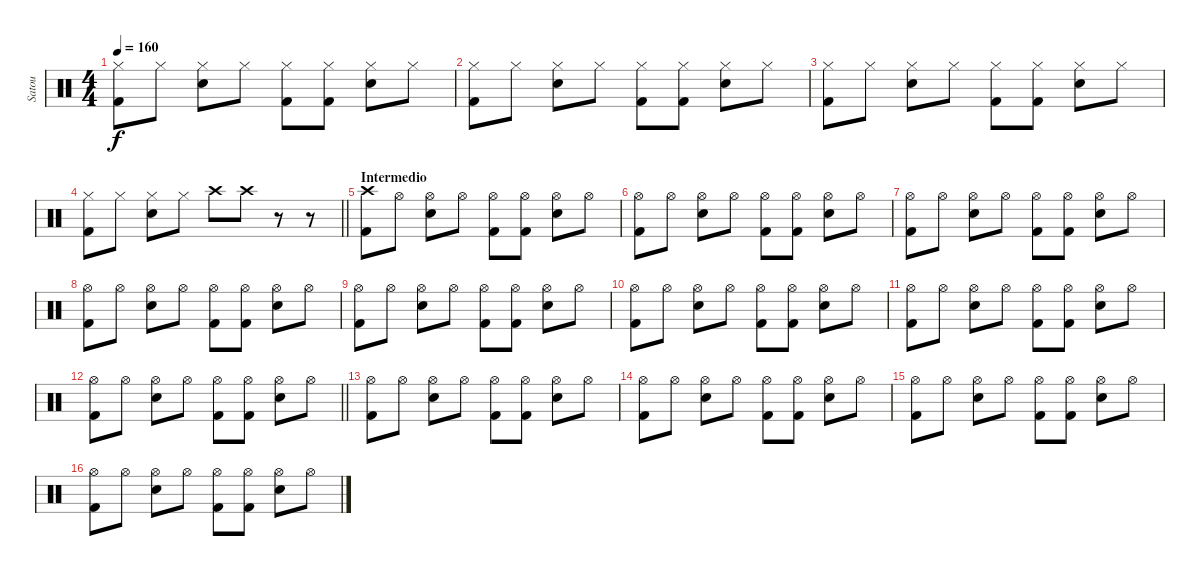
\track ("Satou" "Satou") {instrument percussion}
\staff {score}
\articulation defaults
\ts (4 4)
\tempo 160
\clef neutral
\ks c
("Hi-Hat (closed)" "Kick (hit) 2").8{dy f} "Hi-Hat (closed)".8 ("Hi-Hat (closed)" "Snare (hit) 2").8 "Hi-Hat (closed)".8 ("Hi-Hat (closed)" "Kick (hit) 2").8 ("Hi-Hat (closed)" "Kick (hit) 2").8 ("Hi-Hat (closed)" "Snare (hit) 2").8 "Hi-Hat (closed)".8 |
("Hi-Hat (closed)" "Kick (hit) 2").8 "Hi-Hat (closed)".8 ("Hi-Hat (closed)" "Snare (hit) 2").8 "Hi-Hat (closed)".8 ("Hi-Hat (closed)" "Kick (hit) 2").8 ("Hi-Hat (closed)" "Kick (hit) 2").8 ("Hi-Hat (closed)" "Snare (hit) 2").8 "Hi-Hat (closed)".8 |
("Hi-Hat (closed)" "Kick (hit) 2").8 "Hi-Hat (closed)".8 ("Hi-Hat (closed)" "Snare (hit) 2").8 "Hi-Hat (closed)".8 ("Hi-Hat (closed)" "Kick (hit) 2").8 ("Hi-Hat (closed)" "Kick (hit) 2").8 ("Hi-Hat (closed)" "Snare (hit) 2").8 "Hi-Hat (closed)".8 |
\barLineRight lightlight
("Hi-Hat (closed)" "Kick (hit) 2").8 "Hi-Hat (closed)".8 ("Hi-Hat (closed)" "Snare (hit) 2").8 "Hi-Hat (closed)".8 "Crash high (hit)".8 "Crash high (hit)".8 r.8 r.8 |
\section ("" "Intermedio")
("Crash high (hit)" "Kick (hit) 2").8 "Hi-Hat (open)".8 ("Hi-Hat (open)" "Snare (hit) 2").8 "Hi-Hat (open)".8 ("Hi-Hat (open)" "Kick (hit) 2").8 ("Hi-Hat (open)" "Kick (hit) 2").8 ("Hi-Hat (open)" "Snare (hit) 2").8 "Hi-Hat (open)".8 |
("Hi-Hat (open)" "Kick (hit) 2").8 "Hi-Hat (open)".8 ("Hi-Hat (open)" "Snare (hit) 2").8 "Hi-Hat (open)".8 ("Hi-Hat (open)" "Kick (hit) 2").8 ("Hi-Hat (open)" "Kick (hit) 2").8 ("Hi-Hat (open)" "Snare (hit) 2").8 "Hi-Hat (open)".8 |
("Hi-Hat (open)" "Kick (hit) 2").8 "Hi-Hat (open)".8 ("Hi-Hat (open)" "Snare (hit) 2").8 "Hi-Hat (open)".8 ("Hi-Hat (open)" "Kick (hit) 2").8 ("Hi-Hat (open)" "Kick (hit) 2").8 ("Hi-Hat (open)" "Snare (hit) 2").8 "Hi-Hat (open)".8 |
("Hi-Hat (open)" "Kick (hit) 2").8 "Hi-Hat (open)".8 ("Hi-Hat (open)" "Snare (hit) 2").8 "Hi-Hat (open)".8 ("Hi-Hat (open)" "Kick (hit) 2").8 ("Hi-Hat (open)" "Kick (hit) 2").8 ("Hi-Hat (open)" "Snare (hit) 2").8 "Hi-Hat (open)".8 |
("Hi-Hat (open)" "Kick (hit) 2").8 "Hi-Hat (open)".8 ("Hi-Hat (open)" "Snare (hit) 2").8 "Hi-Hat (open)".8 ("Hi-Hat (open)" "Kick (hit) 2").8 ("Hi-Hat (open)" "Kick (hit) 2").8 ("Hi-Hat (open)" "Snare (hit) 2").8 "Hi-Hat (open)".8 |
("Hi-Hat (open)" "Kick (hit) 2").8 "Hi-Hat (open)".8 ("Hi-Hat (open)" "Snare (hit) 2").8 "Hi-Hat (open)".8 ("Hi-Hat (open)" "Kick (hit) 2").8 ("Hi-Hat (open)" "Kick (hit) 2").8 ("Hi-Hat (open)" "Snare (hit) 2").8 "Hi-Hat (open)".8 |
("Hi-Hat (open)" "Kick (hit) 2").8 "Hi-Hat (open)".8 ("Hi-Hat (open)" "Snare (hit) 2").8 "Hi-Hat (open)".8 ("Hi-Hat (open)" "Kick (hit) 2").8 ("Hi-Hat (open)" "Kick (hit) 2").8 ("Hi-Hat (open)" "Snare (hit) 2").8 "Hi-Hat (open)".8 |
\barLineRight lightlight
("Hi-Hat (open)" "Kick (hit) 2").8 "Hi-Hat (open)".8 ("Hi-Hat (open)" "Snare (hit) 2").8 "Hi-Hat (open)".8 ("Hi-Hat (open)" "Kick (hit) 2").8 ("Hi-Hat (open)" "Kick (hit) 2").8 ("Hi-Hat (open)" "Snare (hit) 2").8 "Hi-Hat (open)".8 |
("Hi-Hat (open)" "Kick (hit) 2").8 "Hi-Hat (open)".8 ("Hi-Hat (open)" "Snare (hit) 2").8 "Hi-Hat (open)".8 ("Hi-Hat (open)" "Kick (hit) 2").8 ("Hi-Hat (open)" "Kick (hit) 2").8 ("Hi-Hat (open)" "Snare (hit) 2").8 "Hi-Hat (open)".8 |
("Hi-Hat (open)" "Kick (hit) 2").8 "Hi-Hat (open)".8 ("Hi-Hat (open)" "Snare (hit) 2").8 "Hi-Hat (open)".8 ("Hi-Hat (open)" "Kick (hit) 2").8 ("Hi-Hat (open)" "Kick (hit) 2").8 ("Hi-Hat (open)" "Snare (hit) 2").8 "Hi-Hat (open)".8 |
("Hi-Hat (open)" "Kick (hit) 2").8 "Hi-Hat (open)".8 ("Hi-Hat (open)" "Snare (hit) 2").8 "Hi-Hat (open)".8 ("Hi-Hat (open)" "Kick (hit) 2").8 ("Hi-Hat (open)" "Kick (hit) 2").8 ("Hi-Hat (open)" "Snare (hit) 2").8 "Hi-Hat (open)".8 |
("Hi-Hat (open)" "Kick (hit) 2").8 "Hi-Hat (open)".8 ("Hi-Hat (open)" "Snare (hit) 2").8 "Hi-Hat (open)".8 ("Hi-Hat (open)" "Kick (hit) 2").8 ("Hi-Hat (open)" "Kick (hit) 2").8 ("Hi-Hat (open)" "Snare (hit) 2").8 "Hi-Hat (open)".8
